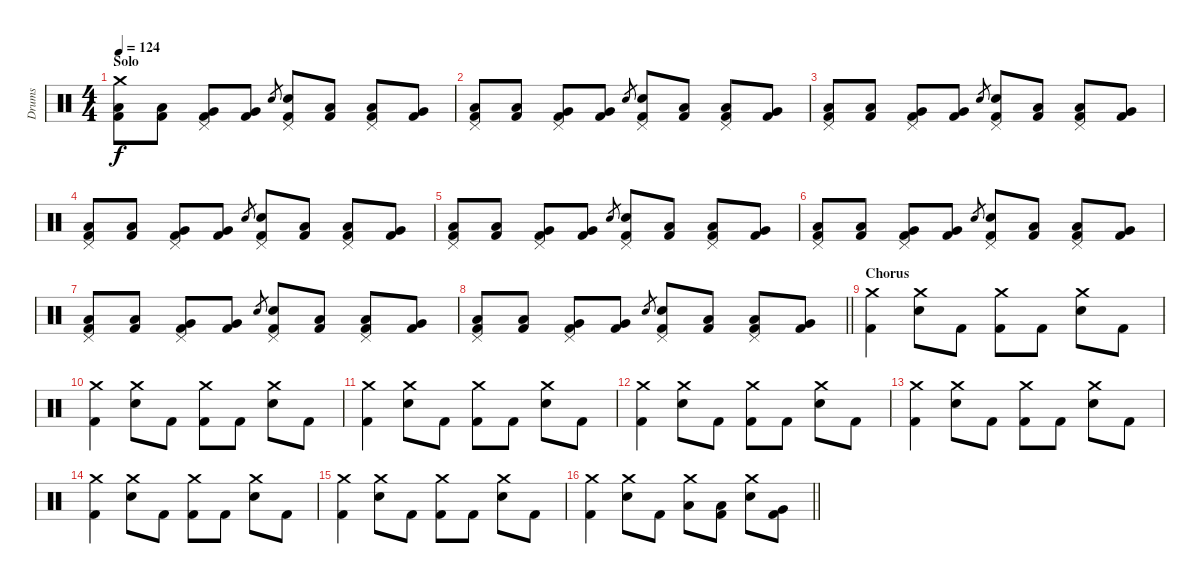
\track ("Drums" "Drums") {instrument percussion}
\staff {score}
\articulation defaults
\ts (4 4)
\section ("" "Solo")
\tempo 124
\clef neutral
\ks c
("Crash medium (hit)" "Low Tom (hit)" "Kick (hit) 2").8{dy f} ("Low Tom (hit)" "Kick (hit) 2").8 ("Pedal Hi-Hat (hit)" "Very Low Tom (hit)" "Kick (hit) 2").8 ("Very Low Tom (hit)" "Kick (hit) 2").8 "Electric Snare (hit)".8{gr} ("Pedal Hi-Hat (hit)" "Electric Snare (hit)" "Kick (hit) 2").8 ("Low Tom (hit)" "Kick (hit) 2").8 ("Pedal Hi-Hat (hit)" "Low Tom (hit)" "Kick (hit) 2").8 ("Very Low Tom (hit)" "Kick (hit) 2").8 |
("Pedal Hi-Hat (hit)" "Low Tom (hit)" "Kick (hit) 2").8 ("Low Tom (hit)" "Kick (hit) 2").8 ("Pedal Hi-Hat (hit)" "Very Low Tom (hit)" "Kick (hit) 2").8 ("Very Low Tom (hit)" "Kick (hit) 2").8 "Electric Snare (hit)".8{gr} ("Pedal Hi-Hat (hit)" "Electric Snare (hit)" "Kick (hit) 2").8 ("Low Tom (hit)" "Kick (hit) 2").8 ("Pedal Hi-Hat (hit)" "Low Tom (hit)" "Kick (hit) 2").8 ("Very Low Tom (hit)" "Kick (hit) 2").8 |
("Pedal Hi-Hat (hit)" "Low Tom (hit)" "Kick (hit) 2").8 ("Low Tom (hit)" "Kick (hit) 2").8 ("Pedal Hi-Hat (hit)" "Very Low Tom (hit)" "Kick (hit) 2").8 ("Very Low Tom (hit)" "Kick (hit) 2").8 "Electric Snare (hit)".8{gr} ("Pedal Hi-Hat (hit)" "Electric Snare (hit)" "Kick (hit) 2").8 ("Low Tom (hit)" "Kick (hit) 2").8 ("Pedal Hi-Hat (hit)" "Low Tom (hit)" "Kick (hit) 2").8 ("Very Low Tom (hit)" "Kick (hit) 2").8 |
("Pedal Hi-Hat (hit)" "Low Tom (hit)" "Kick (hit) 2").8 ("Low Tom (hit)" "Kick (hit) 2").8 ("Pedal Hi-Hat (hit)" "Very Low Tom (hit)" "Kick (hit) 2").8 ("Very Low Tom (hit)" "Kick (hit) 2").8 "Electric Snare (hit)".8{gr} ("Pedal Hi-Hat (hit)" "Electric Snare (hit)" "Kick (hit) 2").8 ("Low Tom (hit)" "Kick (hit) 2").8 ("Pedal Hi-Hat (hit)" "Low Tom (hit)" "Kick (hit) 2").8 ("Very Low Tom (hit)" "Kick (hit) 2").8 |
("Pedal Hi-Hat (hit)" "Low Tom (hit)" "Kick (hit) 2").8 ("Low Tom (hit)" "Kick (hit) 2").8 ("Pedal Hi-Hat (hit)" "Very Low Tom (hit)" "Kick (hit) 2").8 ("Very Low Tom (hit)" "Kick (hit) 2").8 "Electric Snare (hit)".8{gr} ("Pedal Hi-Hat (hit)" "Electric Snare (hit)" "Kick (hit) 2").8 ("Low Tom (hit)" "Kick (hit) 2").8 ("Pedal Hi-Hat (hit)" "Low Tom (hit)" "Kick (hit) 2").8 ("Very Low Tom (hit)" "Kick (hit) 2").8 |
("Pedal Hi-Hat (hit)" "Low Tom (hit)" "Kick (hit) 2").8 ("Low Tom (hit)" "Kick (hit) 2").8 ("Pedal Hi-Hat (hit)" "Very Low Tom (hit)" "Kick (hit) 2").8 ("Very Low Tom (hit)" "Kick (hit) 2").8 "Electric Snare (hit)".8{gr} ("Pedal Hi-Hat (hit)" "Electric Snare (hit)" "Kick (hit) 2").8 ("Low Tom (hit)" "Kick (hit) 2").8 ("Pedal Hi-Hat (hit)" "Low Tom (hit)" "Kick (hit) 2").8 ("Very Low Tom (hit)" "Kick (hit) 2").8 |
("Pedal Hi-Hat (hit)" "Low Tom (hit)" "Kick (hit) 2").8 ("Low Tom (hit)" "Kick (hit) 2").8 ("Pedal Hi-Hat (hit)" "Very Low Tom (hit)" "Kick (hit) 2").8 ("Very Low Tom (hit)" "Kick (hit) 2").8 "Electric Snare (hit)".8{gr} ("Pedal Hi-Hat (hit)" "Electric Snare (hit)" "Kick (hit) 2").8 ("Low Tom (hit)" "Kick (hit) 2").8 ("Pedal Hi-Hat (hit)" "Low Tom (hit)" "Kick (hit) 2").8 ("Very Low Tom (hit)" "Kick (hit) 2").8 |
\barLineRight lightlight
("Pedal Hi-Hat (hit)" "Low Tom (hit)" "Kick (hit) 2").8 ("Low Tom (hit)" "Kick (hit) 2").8 ("Pedal Hi-Hat (hit)" "Very Low Tom (hit)" "Kick (hit) 2").8 ("Very Low Tom (hit)" "Kick (hit) 2").8 "Electric Snare (hit)".8{gr} ("Pedal Hi-Hat (hit)" "Electric Snare (hit)" "Kick (hit) 2").8 ("Low Tom (hit)" "Kick (hit) 2").8 ("Pedal Hi-Hat (hit)" "Low Tom (hit)" "Kick (hit) 2").8 ("Very Low Tom (hit)" "Kick (hit) 2").8 |
\section ("" "Chorus")
("Crash medium (hit)" "Kick (hit) 2").4 ("Crash medium (hit)" "Electric Snare (hit)").8 "Kick (hit) 2".8 ("Crash medium (hit)" "Kick (hit) 2").8 "Kick (hit) 2".8 ("Crash medium (hit)" "Electric Snare (hit)").8 "Kick (hit) 2".8 |
("Crash medium (hit)" "Kick (hit) 2").4 ("Crash medium (hit)" "Electric Snare (hit)").8 "Kick (hit) 2".8 ("Crash medium (hit)" "Kick (hit) 2").8 "Kick (hit) 2".8 ("Crash medium (hit)" "Electric Snare (hit)").8 "Kick (hit) 2".8 |
("Crash medium (hit)" "Kick (hit) 2").4 ("Crash medium (hit)" "Electric Snare (hit)").8 "Kick (hit) 2".8 ("Crash medium (hit)" "Kick (hit) 2").8 "Kick (hit) 2".8 ("Crash medium (hit)" "Electric Snare (hit)").8 "Kick (hit) 2".8 |
("Crash medium (hit)" "Kick (hit) 2").4 ("Crash medium (hit)" "Electric Snare (hit)").8 "Kick (hit) 2".8 ("Crash medium (hit)" "Kick (hit) 2").8 "Kick (hit) 2".8 ("Crash medium (hit)" "Electric Snare (hit)").8 "Kick (hit) 2".8 |
("Crash medium (hit)" "Kick (hit) 2").4 ("Crash medium (hit)" "Electric Snare (hit)").8 "Kick (hit) 2".8 ("Crash medium (hit)" "Kick (hit) 2").8 "Kick (hit) 2".8 ("Crash medium (hit)" "Electric Snare (hit)").8 "Kick (hit) 2".8 |
("Crash medium (hit)" "Kick (hit) 2").4 ("Crash medium (hit)" "Electric Snare (hit)").8 "Kick (hit) 2".8 ("Crash medium (hit)" "Kick (hit) 2").8 "Kick (hit) 2".8 ("Crash medium (hit)" "Electric Snare (hit)").8 "Kick (hit) 2".8 |
("Crash medium (hit)" "Kick (hit) 2").4 ("Crash medium (hit)" "Electric Snare (hit)").8 "Kick (hit) 2".8 ("Crash medium (hit)" "Kick (hit) 2").8 "Kick (hit) 2".8 ("Crash medium (hit)" "Electric Snare (hit)").8 "Kick (hit) 2".8 |
\barLineRight lightlight
("Crash medium (hit)" "Kick (hit) 2").4 ("Crash medium (hit)" "Electric Snare (hit)").8 "Kick (hit) 2".8 ("Crash medium (hit)" "Low Tom (hit)").8 ("Low Tom (hit)" "Kick (hit) 2").8 ("Crash medium (hit)" "Electric Snare (hit)").8 ("Very Low Tom (hit)" "Kick (hit) 2").8
